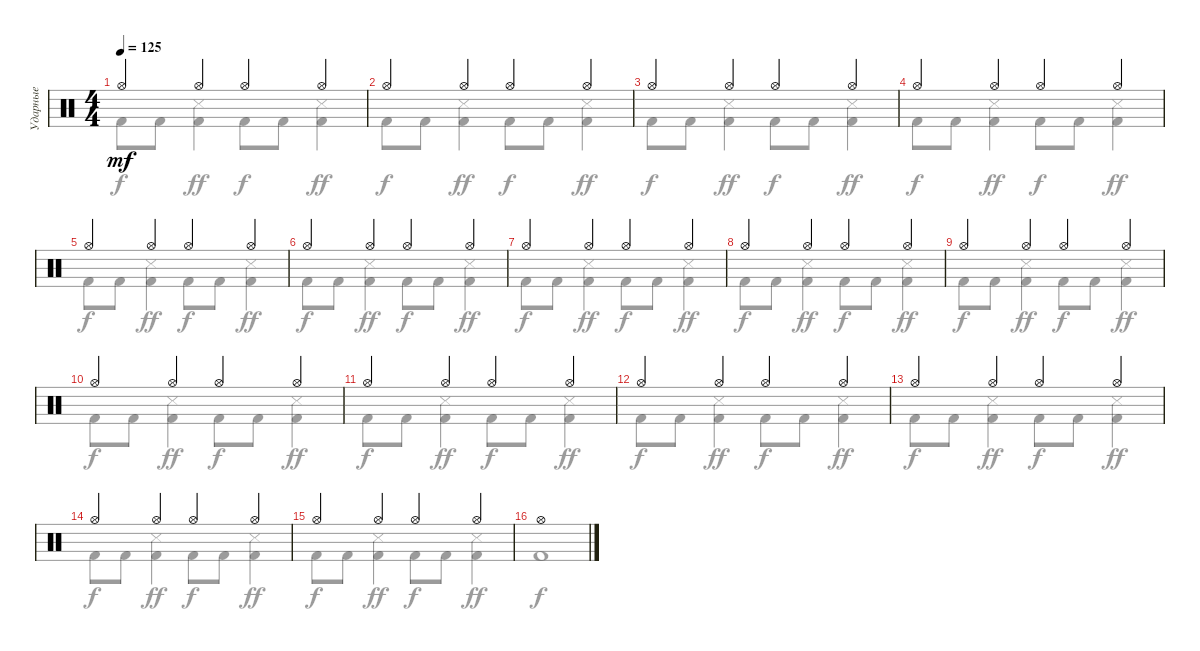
\track ("Ударные" "Ударные") {instrument percussion}
\staff {score}
\articulation defaults
\voice
\ts (4 4)
\tempo 125
\clef neutral
\ks c "Hi-Hat (open)".4{dy mf} "Hi-Hat (open)".4 "Hi-Hat (open)".4 "Hi-Hat (open)".4
|
"Hi-Hat (open)".4 "Hi-Hat (open)".4 "Hi-Hat (open)".4 "Hi-Hat (open)".4 |
"Hi-Hat (open)".4 "Hi-Hat (open)".4 "Hi-Hat (open)".4 "Hi-Hat (open)".4 |
"Hi-Hat (open)".4 "Hi-Hat (open)".4 "Hi-Hat (open)".4 "Hi-Hat (open)".4 |
"Hi-Hat (open)".4 "Hi-Hat (open)".4 "Hi-Hat (open)".4 "Hi-Hat (open)".4 |
"Hi-Hat (open)".4 "Hi-Hat (open)".4 "Hi-Hat (open)".4 "Hi-Hat (open)".4 |
"Hi-Hat (open)".4 "Hi-Hat (open)".4 "Hi-Hat (open)".4 "Hi-Hat (open)".4 |
"Hi-Hat (open)".4 "Hi-Hat (open)".4 "Hi-Hat (open)".4 "Hi-Hat (open)".4 |
"Hi-Hat (open)".4 "Hi-Hat (open)".4 "Hi-Hat (open)".4 "Hi-Hat (open)".4 |
"Hi-Hat (open)".4 "Hi-Hat (open)".4 "Hi-Hat (open)".4 "Hi-Hat (open)".4 |
"Hi-Hat (open)".4 "Hi-Hat (open)".4 "Hi-Hat (open)".4 "Hi-Hat (open)".4 |
"Hi-Hat (open)".4 "Hi-Hat (open)".4 "Hi-Hat (open)".4 "Hi-Hat (open)".4 |
"Hi-Hat (open)".4 "Hi-Hat (open)".4 "Hi-Hat (open)".4 "Hi-Hat (open)".4 |
"Hi-Hat (open)".4 "Hi-Hat (open)".4 "Hi-Hat (open)".4 "Hi-Hat (open)".4 |
"Hi-Hat (open)".4 "Hi-Hat (open)".4 "Hi-Hat (open)".4 "Hi-Hat (open)".4 |
"Hi-Hat (open)".1
\voice
\clef neutral
\ottava regular
\simile none
\ks c "Kick (hit) 2".8{dy f} "Kick (hit) 2".8
("Kick (hit) 2" "Snare (side stick) 3").4{dy ff} "Kick (hit) 2".8{dy f} "Kick (hit) 2".8 ("Kick (hit) 2" "Snare (side stick) 3").4{dy ff} |
"Kick (hit) 2".8{dy f} "Kick (hit) 2".8 ("Kick (hit) 2" "Snare (side stick) 3").4{dy ff} "Kick (hit) 2".8{dy f} "Kick (hit) 2".8 ("Kick (hit) 2" "Snare (side stick) 3").4{dy ff} |
"Kick (hit) 2".8{dy f} "Kick (hit) 2".8 ("Kick (hit) 2" "Snare (side stick) 3").4{dy ff} "Kick (hit) 2".8{dy f} "Kick (hit) 2".8 ("Kick (hit) 2" "Snare (side stick) 3").4{dy ff} |
"Kick (hit) 2".8{dy f} "Kick (hit) 2".8 ("Kick (hit) 2" "Snare (side stick) 3").4{dy ff} "Kick (hit) 2".8{dy f} "Kick (hit) 2".8 ("Kick (hit) 2" "Snare (side stick) 3").4{dy ff} |
"Kick (hit) 2".8{dy f} "Kick (hit) 2".8 ("Kick (hit) 2" "Snare (side stick) 3").4{dy ff} "Kick (hit) 2".8{dy f} "Kick (hit) 2".8 ("Kick (hit) 2" "Snare (side stick) 3").4{dy ff} |
"Kick (hit) 2".8{dy f} "Kick (hit) 2".8 ("Kick (hit) 2" "Snare (side stick) 3").4{dy ff} "Kick (hit) 2".8{dy f} "Kick (hit) 2".8 ("Kick (hit) 2" "Snare (side stick) 3").4{dy ff} |
"Kick (hit) 2".8{dy f} "Kick (hit) 2".8 ("Kick (hit) 2" "Snare (side stick) 3").4{dy ff} "Kick (hit) 2".8{dy f} "Kick (hit) 2".8 ("Kick (hit) 2" "Snare (side stick) 3").4{dy ff} |
"Kick (hit) 2".8{dy f} "Kick (hit) 2".8 ("Kick (hit) 2" "Snare (side stick) 3").4{dy ff} "Kick (hit) 2".8{dy f} "Kick (hit) 2".8 ("Kick (hit) 2" "Snare (side stick) 3").4{dy ff} |
"Kick (hit) 2".8{dy f} "Kick (hit) 2".8 ("Kick (hit) 2" "Snare (side stick) 3").4{dy ff} "Kick (hit) 2".8{dy f} "Kick (hit) 2".8 ("Kick (hit) 2" "Snare (side stick) 3").4{dy ff} |
"Kick (hit) 2".8{dy f} "Kick (hit) 2".8 ("Kick (hit) 2" "Snare (side stick) 3").4{dy ff} "Kick (hit) 2".8{dy f} "Kick (hit) 2".8 ("Kick (hit) 2" "Snare (side stick) 3").4{dy ff} |
"Kick (hit) 2".8{dy f} "Kick (hit) 2".8 ("Kick (hit) 2" "Snare (side stick) 3").4{dy ff} "Kick (hit) 2".8{dy f} "Kick (hit) 2".8 ("Kick (hit) 2" "Snare (side stick) 3").4{dy ff} |
"Kick (hit) 2".8{dy f} "Kick (hit) 2".8 ("Kick (hit) 2" "Snare (side stick) 3").4{dy ff} "Kick (hit) 2".8{dy f} "Kick (hit) 2".8 ("Kick (hit) 2" "Snare (side stick) 3").4{dy ff} |
"Kick (hit) 2".8{dy f} "Kick (hit) 2".8 ("Kick (hit) 2" "Snare (side stick) 3").4{dy ff} "Kick (hit) 2".8{dy f} "Kick (hit) 2".8 ("Kick (hit) 2" "Snare (side stick) 3").4{dy ff} |
"Kick (hit) 2".8{dy f} "Kick (hit) 2".8 ("Kick (hit) 2" "Snare (side stick) 3").4{dy ff} "Kick (hit) 2".8{dy f} "Kick (hit) 2".8 ("Kick (hit) 2" "Snare (side stick) 3").4{dy ff} |
"Kick (hit) 2".8{dy f} "Kick (hit) 2".8 ("Kick (hit) 2" "Snare (side stick) 3").4{dy ff} "Kick (hit) 2".8{dy f} "Kick (hit) 2".8 ("Kick (hit) 2" "Snare (side stick) 3").4{dy ff} |
"Kick (hit) 2".1{dy f}
